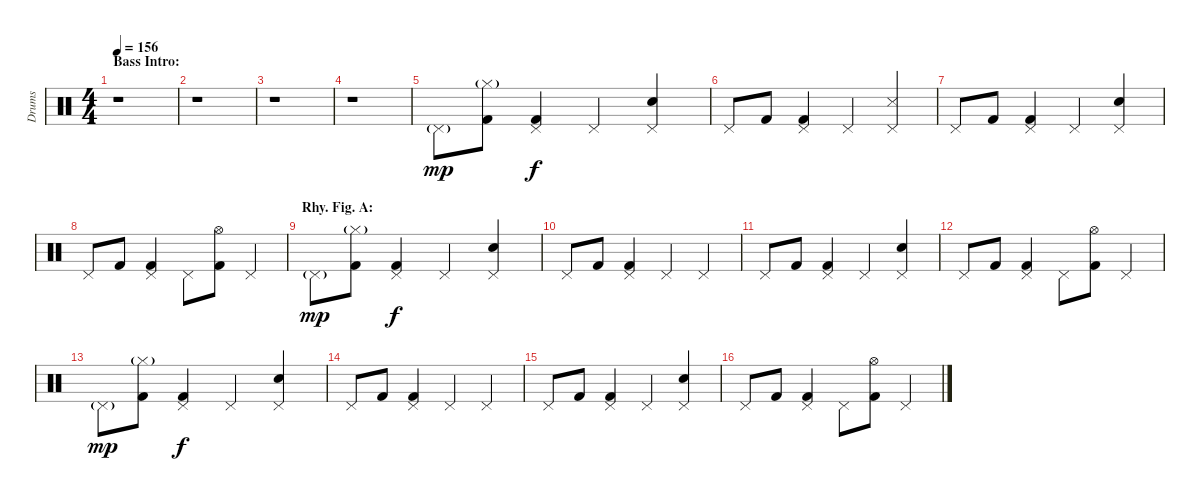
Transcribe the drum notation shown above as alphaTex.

\track ("Drums" "Drums") {instrument percussion}
\staff {score}
\articulation defaults
\ts (4 4)
\section ("" "Bass Intro:")
\tempo 156
\clef neutral
\ks c
r.1{dy mp} |
r.1 |
r.1 |
r.1 |
"Pedal Hi-Hat (hit)"{g}.8 ("Hi-Hat (closed)"{g} "Kick (hit) 2").8 ("Pedal Hi-Hat (hit)" "Kick (hit) 2").4{dy f} "Pedal Hi-Hat (hit)".4 ("Pedal Hi-Hat (hit)" "Electric Snare (hit)").4 |
"Pedal Hi-Hat (hit)".8 "Kick (hit) 2".8 ("Pedal Hi-Hat (hit)" "Kick (hit) 2").4 "Pedal Hi-Hat (hit)".4 ("Pedal Hi-Hat (hit)" "Snare (side stick) 3").4 |
"Pedal Hi-Hat (hit)".8 "Kick (hit) 2".8 ("Pedal Hi-Hat (hit)" "Kick (hit) 2").4 "Pedal Hi-Hat (hit)".4 ("Pedal Hi-Hat (hit)" "Electric Snare (hit)").4 |
"Pedal Hi-Hat (hit)".8 "Kick (hit) 2".8 ("Pedal Hi-Hat (hit)" "Kick (hit) 2").4 "Pedal Hi-Hat (hit)".8 ("Hi-Hat (open)" "Kick (hit) 2").8 "Pedal Hi-Hat (hit)".4 |
\section ("" "Rhy. Fig. A:")
"Pedal Hi-Hat (hit)"{g}.8{dy mp} ("Hi-Hat (closed)"{g} "Kick (hit) 2").8 ("Pedal Hi-Hat (hit)" "Kick (hit) 2").4{dy f} "Pedal Hi-Hat (hit)".4 ("Pedal Hi-Hat (hit)" "Electric Snare (hit)").4 |
"Pedal Hi-Hat (hit)".8 "Kick (hit) 2".8 ("Pedal Hi-Hat (hit)" "Kick (hit) 2").4 "Pedal Hi-Hat (hit)".4 "Pedal Hi-Hat (hit)".4 |
"Pedal Hi-Hat (hit)".8 "Kick (hit) 2".8 ("Pedal Hi-Hat (hit)" "Kick (hit) 2").4 "Pedal Hi-Hat (hit)".4 ("Pedal Hi-Hat (hit)" "Electric Snare (hit)").4 |
"Pedal Hi-Hat (hit)".8 "Kick (hit) 2".8 ("Pedal Hi-Hat (hit)" "Kick (hit) 2").4 "Pedal Hi-Hat (hit)".8 ("Hi-Hat (open)" "Kick (hit) 2").8 "Pedal Hi-Hat (hit)".4 |
"Pedal Hi-Hat (hit)"{g}.8{dy mp} ("Hi-Hat (closed)"{g} "Kick (hit) 2").8 ("Pedal Hi-Hat (hit)" "Kick (hit) 2").4{dy f} "Pedal Hi-Hat (hit)".4 ("Pedal Hi-Hat (hit)" "Electric Snare (hit)").4 |
"Pedal Hi-Hat (hit)".8 "Kick (hit) 2".8 ("Pedal Hi-Hat (hit)" "Kick (hit) 2").4 "Pedal Hi-Hat (hit)".4 "Pedal Hi-Hat (hit)".4 |
"Pedal Hi-Hat (hit)".8 "Kick (hit) 2".8 ("Pedal Hi-Hat (hit)" "Kick (hit) 2").4 "Pedal Hi-Hat (hit)".4 ("Pedal Hi-Hat (hit)" "Electric Snare (hit)").4 |
"Pedal Hi-Hat (hit)".8 "Kick (hit) 2".8 ("Pedal Hi-Hat (hit)" "Kick (hit) 2").4 "Pedal Hi-Hat (hit)".8 ("Hi-Hat (open)" "Kick (hit) 2").8 "Pedal Hi-Hat (hit)".4
